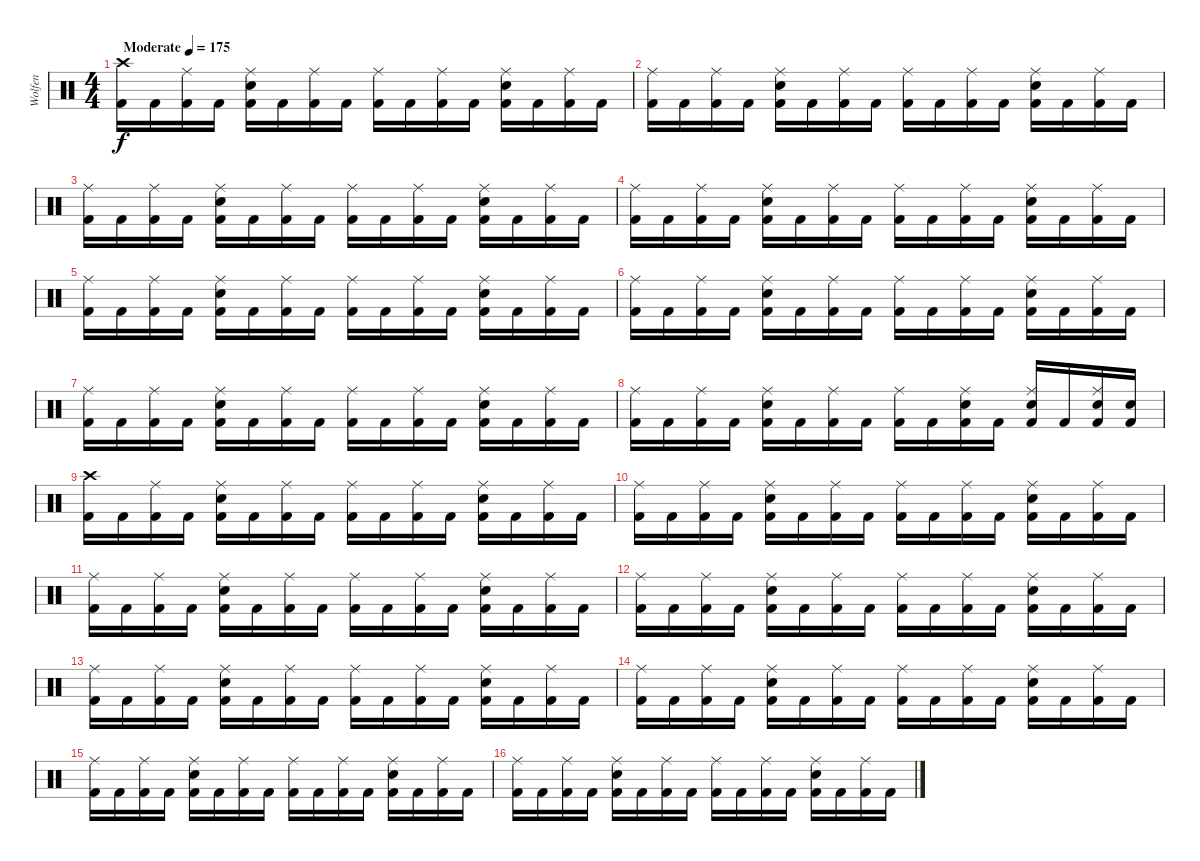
\track ("Wolfen" "Wolfen") {instrument percussion}
\staff {score}
\articulation defaults
\ts (4 4)
\tempo (175 "Moderate")
\clef neutral
\ks c
("Crash high (hit)" "Kick (hit) 2").16{dy f} "Kick (hit) 2".16 ("Ride (middle)" "Kick (hit) 2").16 "Kick (hit) 2".16 ("Ride (middle)" "Electric Snare (hit)" "Kick (hit) 2").16 "Kick (hit) 2".16 ("Ride (middle)" "Kick (hit) 2").16 "Kick (hit) 2".16 ("Ride (middle)" "Kick (hit) 2").16 "Kick (hit) 2".16 ("Ride (middle)" "Kick (hit) 2").16 "Kick (hit) 2".16 ("Ride (middle)" "Electric Snare (hit)" "Kick (hit) 2").16 "Kick (hit) 2".16 ("Ride (middle)" "Kick (hit) 2").16 "Kick (hit) 2".16 |
("Ride (middle)" "Kick (hit) 2").16 "Kick (hit) 2".16 ("Ride (middle)" "Kick (hit) 2").16 "Kick (hit) 2".16 ("Ride (middle)" "Electric Snare (hit)" "Kick (hit) 2").16 "Kick (hit) 2".16 ("Ride (middle)" "Kick (hit) 2").16 "Kick (hit) 2".16 ("Ride (middle)" "Kick (hit) 2").16 "Kick (hit) 2".16 ("Ride (middle)" "Kick (hit) 2").16 "Kick (hit) 2".16 ("Ride (middle)" "Electric Snare (hit)" "Kick (hit) 2").16 "Kick (hit) 2".16 ("Ride (middle)" "Kick (hit) 2").16 "Kick (hit) 2".16 |
("Ride (middle)" "Kick (hit) 2").16 "Kick (hit) 2".16 ("Ride (middle)" "Kick (hit) 2").16 "Kick (hit) 2".16 ("Ride (middle)" "Electric Snare (hit)" "Kick (hit) 2").16 "Kick (hit) 2".16 ("Ride (middle)" "Kick (hit) 2").16 "Kick (hit) 2".16 ("Ride (middle)" "Kick (hit) 2").16 "Kick (hit) 2".16 ("Ride (middle)" "Kick (hit) 2").16 "Kick (hit) 2".16 ("Ride (middle)" "Electric Snare (hit)" "Kick (hit) 2").16 "Kick (hit) 2".16 ("Ride (middle)" "Kick (hit) 2").16 "Kick (hit) 2".16 |
("Ride (middle)" "Kick (hit) 2").16 "Kick (hit) 2".16 ("Ride (middle)" "Kick (hit) 2").16 "Kick (hit) 2".16 ("Ride (middle)" "Electric Snare (hit)" "Kick (hit) 2").16 "Kick (hit) 2".16 ("Ride (middle)" "Kick (hit) 2").16 "Kick (hit) 2".16 ("Ride (middle)" "Kick (hit) 2").16 "Kick (hit) 2".16 ("Ride (middle)" "Kick (hit) 2").16 "Kick (hit) 2".16 ("Ride (middle)" "Electric Snare (hit)" "Kick (hit) 2").16 "Kick (hit) 2".16 ("Ride (middle)" "Kick (hit) 2").16 "Kick (hit) 2".16 |
("Ride (middle)" "Kick (hit) 2").16 "Kick (hit) 2".16 ("Ride (middle)" "Kick (hit) 2").16 "Kick (hit) 2".16 ("Ride (middle)" "Electric Snare (hit)" "Kick (hit) 2").16 "Kick (hit) 2".16 ("Ride (middle)" "Kick (hit) 2").16 "Kick (hit) 2".16 ("Ride (middle)" "Kick (hit) 2").16 "Kick (hit) 2".16 ("Ride (middle)" "Kick (hit) 2").16 "Kick (hit) 2".16 ("Ride (middle)" "Electric Snare (hit)" "Kick (hit) 2").16 "Kick (hit) 2".16 ("Ride (middle)" "Kick (hit) 2").16 "Kick (hit) 2".16 |
("Ride (middle)" "Kick (hit) 2").16 "Kick (hit) 2".16 ("Ride (middle)" "Kick (hit) 2").16 "Kick (hit) 2".16 ("Ride (middle)" "Electric Snare (hit)" "Kick (hit) 2").16 "Kick (hit) 2".16 ("Ride (middle)" "Kick (hit) 2").16 "Kick (hit) 2".16 ("Ride (middle)" "Kick (hit) 2").16 "Kick (hit) 2".16 ("Ride (middle)" "Kick (hit) 2").16 "Kick (hit) 2".16 ("Ride (middle)" "Electric Snare (hit)" "Kick (hit) 2").16 "Kick (hit) 2".16 ("Ride (middle)" "Kick (hit) 2").16 "Kick (hit) 2".16 |
("Ride (middle)" "Kick (hit) 2").16 "Kick (hit) 2".16 ("Ride (middle)" "Kick (hit) 2").16 "Kick (hit) 2".16 ("Ride (middle)" "Electric Snare (hit)" "Kick (hit) 2").16 "Kick (hit) 2".16 ("Ride (middle)" "Kick (hit) 2").16 "Kick (hit) 2".16 ("Ride (middle)" "Kick (hit) 2").16 "Kick (hit) 2".16 ("Ride (middle)" "Kick (hit) 2").16 "Kick (hit) 2".16 ("Ride (middle)" "Electric Snare (hit)" "Kick (hit) 2").16 "Kick (hit) 2".16 ("Ride (middle)" "Kick (hit) 2").16 "Kick (hit) 2".16 |
("Ride (middle)" "Kick (hit) 2").16 "Kick (hit) 2".16 ("Ride (middle)" "Kick (hit) 2").16 "Kick (hit) 2".16 ("Ride (middle)" "Electric Snare (hit)" "Kick (hit) 2").16 "Kick (hit) 2".16 ("Ride (middle)" "Kick (hit) 2").16 "Kick (hit) 2".16 ("Ride (middle)" "Kick (hit) 2").16 "Kick (hit) 2".16 ("Ride (middle)" "Electric Snare (hit)" "Kick (hit) 2").16 "Kick (hit) 2".16 ("Ride (middle)" "Electric Snare (hit)" "Kick (hit) 2").16 "Kick (hit) 2".16 ("Ride (middle)" "Electric Snare (hit)" "Kick (hit) 2").16 ("Electric Snare (hit)" "Kick (hit) 2").16 |
("Crash high (hit)" "Kick (hit) 2").16 "Kick (hit) 2".16 ("Ride (middle)" "Kick (hit) 2").16 "Kick (hit) 2".16 ("Ride (middle)" "Electric Snare (hit)" "Kick (hit) 2").16 "Kick (hit) 2".16 ("Ride (middle)" "Kick (hit) 2").16 "Kick (hit) 2".16 ("Ride (middle)" "Kick (hit) 2").16 "Kick (hit) 2".16 ("Ride (middle)" "Kick (hit) 2").16 "Kick (hit) 2".16 ("Ride (middle)" "Electric Snare (hit)" "Kick (hit) 2").16 "Kick (hit) 2".16 ("Ride (middle)" "Kick (hit) 2").16 "Kick (hit) 2".16 |
("Ride (middle)" "Kick (hit) 2").16 "Kick (hit) 2".16 ("Ride (middle)" "Kick (hit) 2").16 "Kick (hit) 2".16 ("Ride (middle)" "Electric Snare (hit)" "Kick (hit) 2").16 "Kick (hit) 2".16 ("Ride (middle)" "Kick (hit) 2").16 "Kick (hit) 2".16 ("Ride (middle)" "Kick (hit) 2").16 "Kick (hit) 2".16 ("Ride (middle)" "Kick (hit) 2").16 "Kick (hit) 2".16 ("Ride (middle)" "Electric Snare (hit)" "Kick (hit) 2").16 "Kick (hit) 2".16 ("Ride (middle)" "Kick (hit) 2").16 "Kick (hit) 2".16 |
("Ride (middle)" "Kick (hit) 2").16 "Kick (hit) 2".16 ("Ride (middle)" "Kick (hit) 2").16 "Kick (hit) 2".16 ("Ride (middle)" "Electric Snare (hit)" "Kick (hit) 2").16 "Kick (hit) 2".16 ("Ride (middle)" "Kick (hit) 2").16 "Kick (hit) 2".16 ("Ride (middle)" "Kick (hit) 2").16 "Kick (hit) 2".16 ("Ride (middle)" "Kick (hit) 2").16 "Kick (hit) 2".16 ("Ride (middle)" "Electric Snare (hit)" "Kick (hit) 2").16 "Kick (hit) 2".16 ("Ride (middle)" "Kick (hit) 2").16 "Kick (hit) 2".16 |
("Ride (middle)" "Kick (hit) 2").16 "Kick (hit) 2".16 ("Ride (middle)" "Kick (hit) 2").16 "Kick (hit) 2".16 ("Ride (middle)" "Electric Snare (hit)" "Kick (hit) 2").16 "Kick (hit) 2".16 ("Ride (middle)" "Kick (hit) 2").16 "Kick (hit) 2".16 ("Ride (middle)" "Kick (hit) 2").16 "Kick (hit) 2".16 ("Ride (middle)" "Kick (hit) 2").16 "Kick (hit) 2".16 ("Ride (middle)" "Electric Snare (hit)" "Kick (hit) 2").16 "Kick (hit) 2".16 ("Ride (middle)" "Kick (hit) 2").16 "Kick (hit) 2".16 |
("Ride (middle)" "Kick (hit) 2").16 "Kick (hit) 2".16 ("Ride (middle)" "Kick (hit) 2").16 "Kick (hit) 2".16 ("Ride (middle)" "Electric Snare (hit)" "Kick (hit) 2").16 "Kick (hit) 2".16 ("Ride (middle)" "Kick (hit) 2").16 "Kick (hit) 2".16 ("Ride (middle)" "Kick (hit) 2").16 "Kick (hit) 2".16 ("Ride (middle)" "Kick (hit) 2").16 "Kick (hit) 2".16 ("Ride (middle)" "Electric Snare (hit)" "Kick (hit) 2").16 "Kick (hit) 2".16 ("Ride (middle)" "Kick (hit) 2").16 "Kick (hit) 2".16 |
("Ride (middle)" "Kick (hit) 2").16 "Kick (hit) 2".16 ("Ride (middle)" "Kick (hit) 2").16 "Kick (hit) 2".16 ("Ride (middle)" "Electric Snare (hit)" "Kick (hit) 2").16 "Kick (hit) 2".16 ("Ride (middle)" "Kick (hit) 2").16 "Kick (hit) 2".16 ("Ride (middle)" "Kick (hit) 2").16 "Kick (hit) 2".16 ("Ride (middle)" "Kick (hit) 2").16 "Kick (hit) 2".16 ("Ride (middle)" "Electric Snare (hit)" "Kick (hit) 2").16 "Kick (hit) 2".16 ("Ride (middle)" "Kick (hit) 2").16 "Kick (hit) 2".16 |
("Ride (middle)" "Kick (hit) 2").16 "Kick (hit) 2".16 ("Ride (middle)" "Kick (hit) 2").16 "Kick (hit) 2".16 ("Ride (middle)" "Electric Snare (hit)" "Kick (hit) 2").16 "Kick (hit) 2".16 ("Ride (middle)" "Kick (hit) 2").16 "Kick (hit) 2".16 ("Ride (middle)" "Kick (hit) 2").16 "Kick (hit) 2".16 ("Ride (middle)" "Kick (hit) 2").16 "Kick (hit) 2".16 ("Ride (middle)" "Electric Snare (hit)" "Kick (hit) 2").16 "Kick (hit) 2".16 ("Ride (middle)" "Kick (hit) 2").16 "Kick (hit) 2".16 |
("Ride (middle)" "Kick (hit) 2").16 "Kick (hit) 2".16 ("Ride (middle)" "Kick (hit) 2").16 "Kick (hit) 2".16 ("Ride (middle)" "Electric Snare (hit)" "Kick (hit) 2").16 "Kick (hit) 2".16 ("Ride (middle)" "Kick (hit) 2").16 "Kick (hit) 2".16 ("Ride (middle)" "Kick (hit) 2").16 "Kick (hit) 2".16 ("Ride (middle)" "Kick (hit) 2").16 "Kick (hit) 2".16 ("Ride (middle)" "Electric Snare (hit)" "Kick (hit) 2").16 "Kick (hit) 2".16 ("Ride (middle)" "Kick (hit) 2").16 "Kick (hit) 2".16
